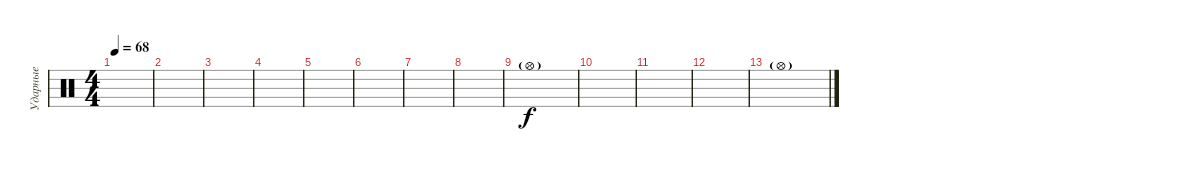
\track ("Ударные" "Ударные") {instrument percussion}
\staff {score}
\articulation defaults
\ts (4 4)
\tempo 68
\clef neutral
\ks c
|
|
|
|
|
|
|
|
"Hi-Hat (open)"{g}.1 |
|
|
|
"Hi-Hat (open)"{g}.1
